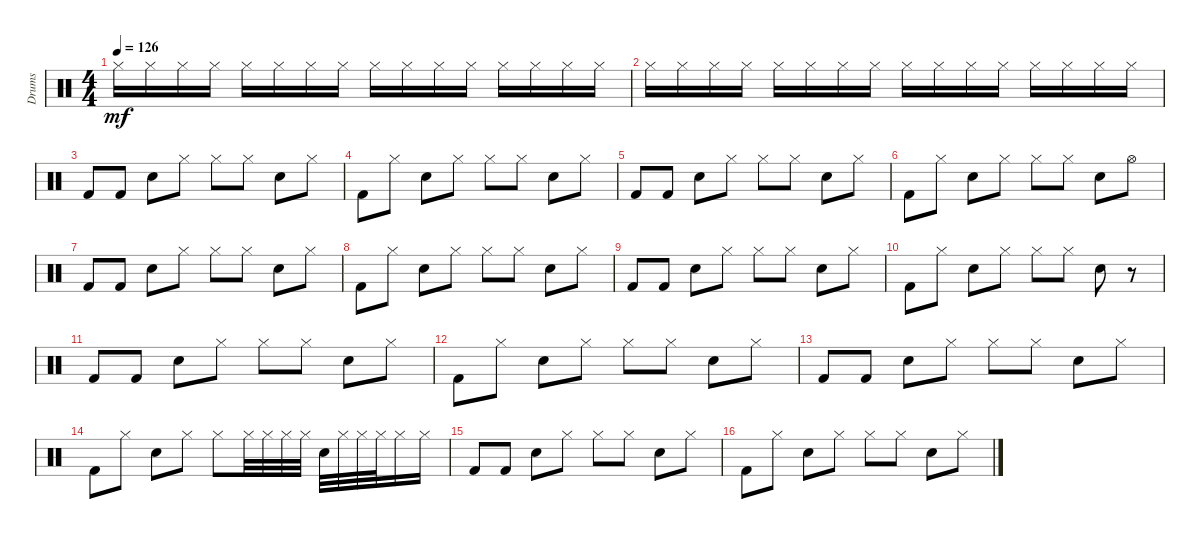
\track ("Drums" "Drums") {instrument percussion}
\staff {score}
\articulation defaults
\ts (4 4)
\tempo 126
\clef neutral
\ks c "Hi-Hat (closed)".16{dy mf} "Hi-Hat (closed)".16 "Hi-Hat (closed)".16 "Hi-Hat (closed)".16 "Hi-Hat (closed)".16 "Hi-Hat (closed)".16 "Hi-Hat (closed)".16 "Hi-Hat (closed)".16 "Hi-Hat (closed)".16 "Hi-Hat (closed)".16 "Hi-Hat (closed)".16 "Hi-Hat (closed)".16 "Hi-Hat (closed)".16 "Hi-Hat (closed)".16 "Hi-Hat (closed)".16 "Hi-Hat (closed)".16
|
"Hi-Hat (closed)".16 "Hi-Hat (closed)".16 "Hi-Hat (closed)".16 "Hi-Hat (closed)".16 "Hi-Hat (closed)".16 "Hi-Hat (closed)".16 "Hi-Hat (closed)".16 "Hi-Hat (closed)".16 "Hi-Hat (closed)".16 "Hi-Hat (closed)".16 "Hi-Hat (closed)".16 "Hi-Hat (closed)".16 "Hi-Hat (closed)".16 "Hi-Hat (closed)".16 "Hi-Hat (closed)".16 "Hi-Hat (closed)".16 |
"Kick (hit) 2".8 "Kick (hit) 2".8 "Snare (hit) 2".8 "Hi-Hat (closed)".8 "Hi-Hat (closed)".8 "Hi-Hat (closed)".8 "Snare (hit) 2".8 "Hi-Hat (closed)".8 |
"Kick (hit) 2".8 "Hi-Hat (closed)".8 "Snare (hit) 2".8 "Hi-Hat (closed)".8 "Hi-Hat (closed)".8 "Hi-Hat (closed)".8 "Snare (hit) 2".8 "Hi-Hat (closed)".8 |
"Kick (hit) 2".8 "Kick (hit) 2".8 "Snare (hit) 2".8 "Hi-Hat (closed)".8 "Hi-Hat (closed)".8 "Hi-Hat (closed)".8 "Snare (hit) 2".8 "Hi-Hat (closed)".8 |
"Kick (hit) 2".8 "Hi-Hat (closed)".8 "Snare (hit) 2".8 "Hi-Hat (closed)".8 "Hi-Hat (closed)".8 "Hi-Hat (closed)".8 "Snare (hit) 2".8 "Hi-Hat (open)".8 |
"Kick (hit) 2".8 "Kick (hit) 2".8 "Snare (hit) 2".8 "Hi-Hat (closed)".8 "Hi-Hat (closed)".8 "Hi-Hat (closed)".8 "Snare (hit) 2".8 "Hi-Hat (closed)".8 |
"Kick (hit) 2".8 "Hi-Hat (closed)".8 "Snare (hit) 2".8 "Hi-Hat (closed)".8 "Hi-Hat (closed)".8 "Hi-Hat (closed)".8 "Snare (hit) 2".8 "Hi-Hat (closed)".8 |
"Kick (hit) 2".8 "Kick (hit) 2".8 "Snare (hit) 2".8 "Hi-Hat (closed)".8 "Hi-Hat (closed)".8 "Hi-Hat (closed)".8 "Snare (hit) 2".8 "Hi-Hat (closed)".8 |
"Kick (hit) 2".8 "Hi-Hat (closed)".8 "Snare (hit) 2".8 "Hi-Hat (closed)".8 "Hi-Hat (closed)".8 "Hi-Hat (closed)".8 "Snare (hit) 2".8 r.8 |
"Kick (hit) 2".8 "Kick (hit) 2".8 "Snare (hit) 2".8 "Hi-Hat (closed)".8 "Hi-Hat (closed)".8 "Hi-Hat (closed)".8 "Snare (hit) 2".8 "Hi-Hat (closed)".8 |
"Kick (hit) 2".8 "Hi-Hat (closed)".8 "Snare (hit) 2".8 "Hi-Hat (closed)".8 "Hi-Hat (closed)".8 "Hi-Hat (closed)".8 "Snare (hit) 2".8 "Hi-Hat (closed)".8 |
"Kick (hit) 2".8 "Kick (hit) 2".8 "Snare (hit) 2".8 "Hi-Hat (closed)".8 "Hi-Hat (closed)".8 "Hi-Hat (closed)".8 "Snare (hit) 2".8 "Hi-Hat (closed)".8 |
"Kick (hit) 2".8 "Hi-Hat (closed)".8 "Snare (hit) 2".8 "Hi-Hat (closed)".8 "Hi-Hat (closed)".8 "Hi-Hat (closed)".32 "Hi-Hat (closed)".32 "Hi-Hat (closed)".32 "Hi-Hat (closed)".32 "Snare (hit) 2".32 "Hi-Hat (closed)".32 "Hi-Hat (closed)".32 "Hi-Hat (closed)".32 "Hi-Hat (closed)".16 "Hi-Hat (closed)".16 |
"Kick (hit) 2".8 "Kick (hit) 2".8 "Snare (hit) 2".8 "Hi-Hat (closed)".8 "Hi-Hat (closed)".8 "Hi-Hat (closed)".8 "Snare (hit) 2".8 "Hi-Hat (closed)".8 |
"Kick (hit) 2".8 "Hi-Hat (closed)".8 "Snare (hit) 2".8 "Hi-Hat (closed)".8 "Hi-Hat (closed)".8 "Hi-Hat (closed)".8 "Snare (hit) 2".8 "Hi-Hat (closed)".8
